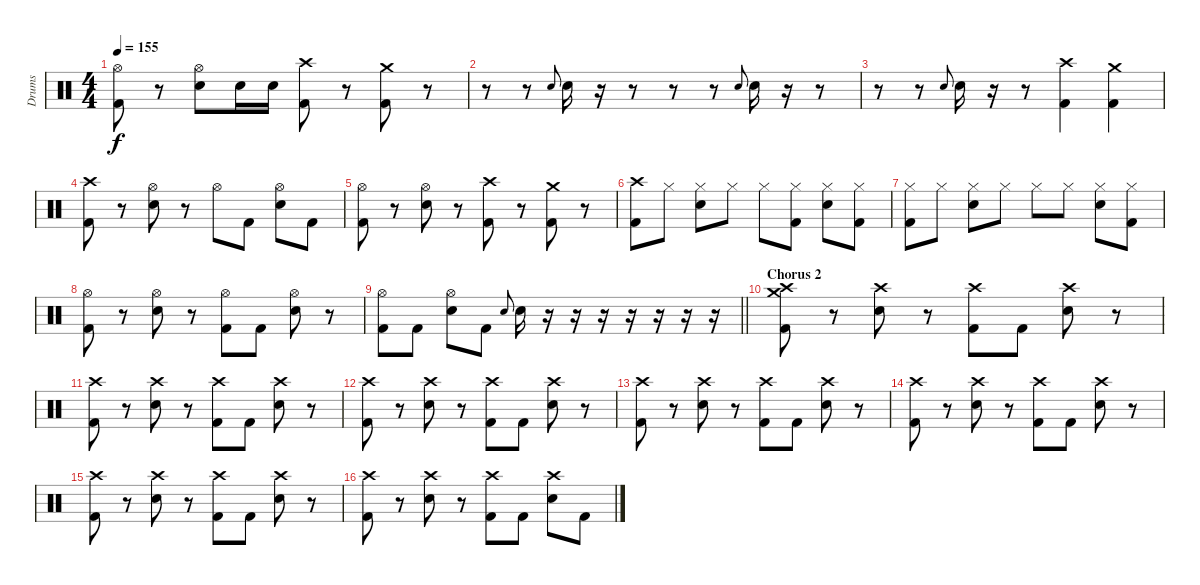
\track ("Drums" "Drums") {instrument percussion}
\staff {score}
\articulation defaults
\ts (4 4)
\tempo 155
\clef neutral
\ks c
("Hi-Hat (open)" "Kick (hit) 2").8{dy f} r.8 ("Hi-Hat (open)" "Electric Snare (hit)").8 "Electric Snare (hit)".16 "Electric Snare (hit)".16 ("Crash high (hit)" "Kick (hit) 2").8 r.8 ("Crash medium (hit)" "Kick (hit) 2").8 r.8 |
r.8 r.8 "Electric Snare (hit)".8{gr onbeat} "Electric Snare (hit)".16 r.16 r.8 r.8 r.8 "Electric Snare (hit)".8{gr onbeat} "Electric Snare (hit)".16 r.16 r.8 |
r.8 r.8 "Electric Snare (hit)".8{gr onbeat} "Electric Snare (hit)".16 r.16 r.8 ("Crash high (hit)" "Kick (hit) 2").4 ("Crash medium (hit)" "Kick (hit) 2").4 |
("Crash high (hit)" "Kick (hit) 2").8 r.8 ("Hi-Hat (open)" "Electric Snare (hit)").8 r.8 "Hi-Hat (open)".8 "Kick (hit) 2".8 ("Hi-Hat (open)" "Electric Snare (hit)").8 "Kick (hit) 2".8 |
("Hi-Hat (open)" "Kick (hit) 2").8 r.8 ("Hi-Hat (open)" "Electric Snare (hit)").8 r.8 ("Crash high (hit)" "Kick (hit) 2").8 r.8 ("Crash medium (hit)" "Kick (hit) 2").8 r.8 |
("Crash high (hit)" "Kick (hit) 2").8 "Hi-Hat (closed)".8 ("Hi-Hat (closed)" "Electric Snare (hit)").8 "Hi-Hat (closed)".8 "Hi-Hat (closed)".8 ("Hi-Hat (closed)" "Kick (hit) 2").8 ("Hi-Hat (closed)" "Electric Snare (hit)").8 ("Hi-Hat (closed)" "Kick (hit) 2").8 |
("Hi-Hat (closed)" "Kick (hit) 2").8 "Hi-Hat (closed)".8 ("Hi-Hat (closed)" "Electric Snare (hit)").8 "Hi-Hat (closed)".8 "Hi-Hat (closed)".8 "Hi-Hat (closed)".8 ("Hi-Hat (closed)" "Electric Snare (hit)").8 ("Hi-Hat (closed)" "Kick (hit) 2").8 |
("Hi-Hat (open)" "Kick (hit) 2").8 r.8 ("Hi-Hat (open)" "Electric Snare (hit)").8 r.8 ("Hi-Hat (open)" "Kick (hit) 2").8 "Kick (hit) 2".8 ("Hi-Hat (open)" "Electric Snare (hit)").8 r.8 |
\barLineRight lightlight
("Hi-Hat (open)" "Kick (hit) 2").8 "Kick (hit) 2".8 ("Hi-Hat (open)" "Electric Snare (hit)").8 "Kick (hit) 2".8 "Electric Snare (hit)".8{gr onbeat} "Electric Snare (hit)".16 r.16 r.16 r.16 r.16 r.16 r.16 r.16 |
\section ("" "Chorus 2")
("Crash medium (hit)" "Crash high (hit)" "Kick (hit) 2").8 r.8 ("Crash high (hit)" "Electric Snare (hit)").8 r.8 ("Crash high (hit)" "Kick (hit) 2").8 "Kick (hit) 2".8 ("Crash high (hit)" "Electric Snare (hit)").8 r.8 |
("Crash high (hit)" "Kick (hit) 2").8 r.8 ("Crash high (hit)" "Electric Snare (hit)").8 r.8 ("Crash high (hit)" "Kick (hit) 2").8 "Kick (hit) 2".8 ("Crash high (hit)" "Electric Snare (hit)").8 r.8 |
("Crash high (hit)" "Kick (hit) 2").8 r.8 ("Crash high (hit)" "Electric Snare (hit)").8 r.8 ("Crash high (hit)" "Kick (hit) 2").8 "Kick (hit) 2".8 ("Crash high (hit)" "Electric Snare (hit)").8 r.8 |
("Crash high (hit)" "Kick (hit) 2").8 r.8 ("Crash high (hit)" "Electric Snare (hit)").8 r.8 ("Crash high (hit)" "Kick (hit) 2").8 "Kick (hit) 2".8 ("Crash high (hit)" "Electric Snare (hit)").8 r.8 |
("Crash high (hit)" "Kick (hit) 2").8 r.8 ("Crash high (hit)" "Electric Snare (hit)").8 r.8 ("Crash high (hit)" "Kick (hit) 2").8 "Kick (hit) 2".8 ("Crash high (hit)" "Electric Snare (hit)").8 r.8 |
("Crash high (hit)" "Kick (hit) 2").8 r.8 ("Crash high (hit)" "Electric Snare (hit)").8 r.8 ("Crash high (hit)" "Kick (hit) 2").8 "Kick (hit) 2".8 ("Crash high (hit)" "Electric Snare (hit)").8 r.8 |
("Crash high (hit)" "Kick (hit) 2").8 r.8 ("Crash high (hit)" "Electric Snare (hit)").8 r.8 ("Crash high (hit)" "Kick (hit) 2").8 "Kick (hit) 2".8 ("Crash high (hit)" "Electric Snare (hit)").8 "Kick (hit) 2".8
